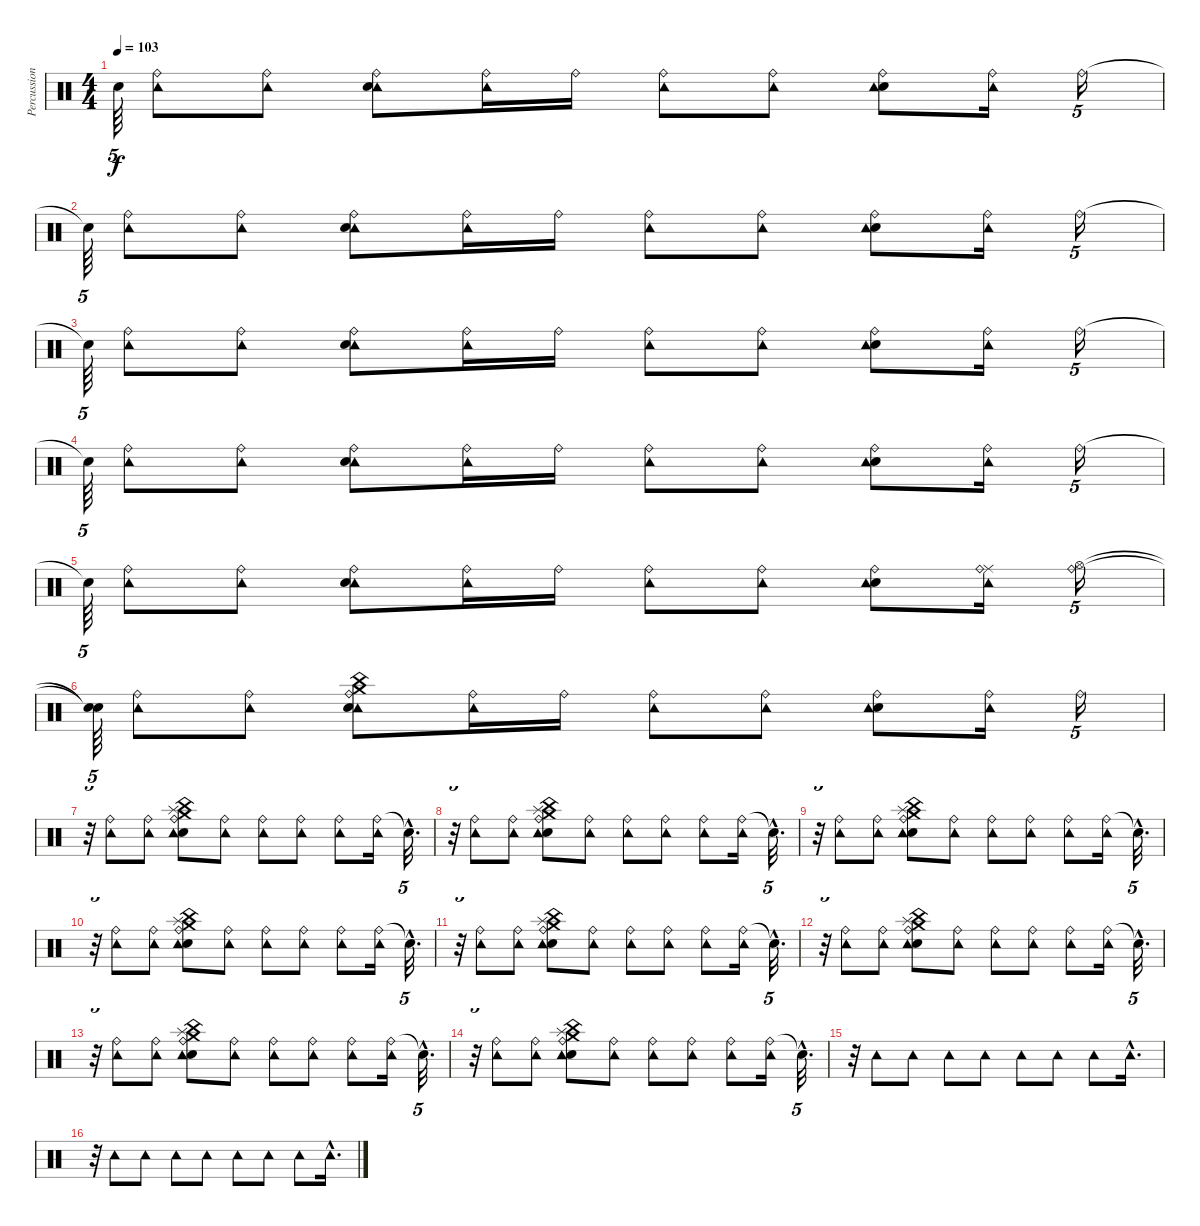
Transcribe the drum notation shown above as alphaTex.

\track ("Percussion" "Percussion") {instrument percussion}
\staff {score}
\articulation defaults
\ts (4 4)
\tempo 103
\clef neutral
\ks c "Snare (hit)"{t}.64{tu (5 4) dy f}
("Ride (bell)" "Tambourine (hit)").8 ("Ride (bell)" "Tambourine (hit)").8 ("Ride (bell)" "Tambourine (hit)" "Snare (hit) 2").8 ("Ride (bell)" "Tambourine (hit)").16 "Ride (bell)".16 ("Ride (bell)" "Tambourine (hit)").8 ("Ride (bell)" "Tambourine (hit)").8 ("Ride (bell)" "Snare (hit) 2" "Tambourine (hit)").8 ("Ride (bell)" "Tambourine (hit)").16 "Ride (bell)".16{tu (5 4)} |
"Snare (hit)"{t}.64{tu (5 4)} ("Ride (bell)" "Tambourine (hit)").8 ("Ride (bell)" "Tambourine (hit)").8 ("Ride (bell)" "Tambourine (hit)" "Snare (hit) 2").8 ("Ride (bell)" "Tambourine (hit)").16 "Ride (bell)".16 ("Ride (bell)" "Tambourine (hit)").8 ("Ride (bell)" "Tambourine (hit)").8 ("Ride (bell)" "Snare (hit) 2" "Tambourine (hit)").8 ("Ride (bell)" "Tambourine (hit)").16 "Ride (bell)".16{tu (5 4)} |
"Snare (hit)"{t}.64{tu (5 4)} ("Ride (bell)" "Tambourine (hit)").8 ("Ride (bell)" "Tambourine (hit)").8 ("Ride (bell)" "Tambourine (hit)" "Snare (hit) 2").8 ("Ride (bell)" "Tambourine (hit)").16 "Ride (bell)".16 ("Ride (bell)" "Tambourine (hit)").8 ("Ride (bell)" "Tambourine (hit)").8 ("Ride (bell)" "Snare (hit) 2" "Tambourine (hit)").8 ("Ride (bell)" "Tambourine (hit)").16 "Ride (bell)".16{tu (5 4)} |
"Snare (hit)"{t}.64{tu (5 4)} ("Ride (bell)" "Tambourine (hit)").8 ("Ride (bell)" "Tambourine (hit)").8 ("Ride (bell)" "Tambourine (hit)" "Snare (hit) 2").8 ("Ride (bell)" "Tambourine (hit)").16 "Ride (bell)".16 ("Ride (bell)" "Tambourine (hit)").8 ("Ride (bell)" "Tambourine (hit)").8 ("Ride (bell)" "Snare (hit) 2" "Tambourine (hit)").8 ("Ride (bell)" "Tambourine (hit)").16 "Ride (bell)".16{tu (5 4)} |
"Snare (hit)"{t}.64{tu (5 4)} ("Ride (bell)" "Tambourine (hit)").8 ("Ride (bell)" "Tambourine (hit)").8 ("Ride (bell)" "Tambourine (hit)" "Snare (hit) 2").8 ("Ride (bell)" "Tambourine (hit)").16 "Ride (bell)".16 ("Ride (bell)" "Tambourine (hit)").8 ("Ride (bell)" "Tambourine (hit)").8 ("Ride (bell)" "Snare (hit) 2" "Tambourine (hit)").8 ("Ride (middle)" "Ride (bell)" "Tambourine (hit)").16 ("Hi-Hat (open)" "Ride (bell)").16{tu (5 4)} |
("Snare (hit)"{t} "Snare (hit)"{t}).64{tu (5 4)} ("Ride (bell)" "Tambourine (hit)").8 ("Ride (bell)" "Tambourine (hit)").8 ("Crash medium (hit)" "China (hit)" "Ride (bell)" "Tambourine (hit)" "Snare (hit) 2").8 ("Ride (bell)" "Tambourine (hit)").16 "Ride (bell)".16 ("Ride (bell)" "Tambourine (hit)").8 ("Ride (bell)" "Tambourine (hit)").8 ("Ride (bell)" "Snare (hit) 2" "Tambourine (hit)").8 ("Ride (bell)" "Tambourine (hit)").16 "Ride (bell)".16{tu (5 4)} |
r.32{tu (5 4)} ("Ride (bell)" "Tambourine (hit)").8 ("Ride (bell)" "Tambourine (hit)").8 ("Splash (hit)" "Crash medium (hit)" "China (hit)" "Electric Snare (hit)" "Ride (bell)" "Tambourine (hit)").8 ("Ride (bell)" "Tambourine (hit)").8 ("Ride (bell)" "Tambourine (hit)").8 ("Ride (bell)" "Tambourine (hit)").8 ("Ride (bell)" "Tambourine (hit)").8 ("Ride (bell)" "Tambourine (hit)").16 "Snare (hit)"{hac t}.32{d tu (5 4)} |
r.32{tu (5 4)} ("Ride (bell)" "Tambourine (hit)").8 ("Ride (bell)" "Tambourine (hit)").8 ("Splash (hit)" "Crash medium (hit)" "China (hit)" "Electric Snare (hit)" "Ride (bell)" "Tambourine (hit)").8 ("Ride (bell)" "Tambourine (hit)").8 ("Ride (bell)" "Tambourine (hit)").8 ("Ride (bell)" "Tambourine (hit)").8 ("Ride (bell)" "Tambourine (hit)").8 ("Ride (bell)" "Tambourine (hit)").16 "Snare (hit)"{hac t}.32{d tu (5 4)} |
r.32{tu (5 4)} ("Ride (bell)" "Tambourine (hit)").8 ("Ride (bell)" "Tambourine (hit)").8 ("Splash (hit)" "Crash medium (hit)" "China (hit)" "Electric Snare (hit)" "Ride (bell)" "Tambourine (hit)").8 ("Ride (bell)" "Tambourine (hit)").8 ("Ride (bell)" "Tambourine (hit)").8 ("Ride (bell)" "Tambourine (hit)").8 ("Ride (bell)" "Tambourine (hit)").8 ("Ride (bell)" "Tambourine (hit)").16 "Snare (hit)"{hac t}.32{d tu (5 4)} |
r.32{tu (5 4)} ("Ride (bell)" "Tambourine (hit)").8 ("Ride (bell)" "Tambourine (hit)").8 ("Splash (hit)" "Crash medium (hit)" "China (hit)" "Electric Snare (hit)" "Ride (bell)" "Tambourine (hit)").8 ("Ride (bell)" "Tambourine (hit)").8 ("Ride (bell)" "Tambourine (hit)").8 ("Ride (bell)" "Tambourine (hit)").8 ("Ride (bell)" "Tambourine (hit)").8 ("Ride (bell)" "Tambourine (hit)").16 "Snare (hit)"{hac t}.32{d tu (5 4)} |
r.32{tu (5 4)} ("Ride (bell)" "Tambourine (hit)").8 ("Ride (bell)" "Tambourine (hit)").8 ("Splash (hit)" "Crash medium (hit)" "China (hit)" "Electric Snare (hit)" "Ride (bell)" "Tambourine (hit)").8 ("Ride (bell)" "Tambourine (hit)").8 ("Ride (bell)" "Tambourine (hit)").8 ("Ride (bell)" "Tambourine (hit)").8 ("Ride (bell)" "Tambourine (hit)").8 ("Ride (bell)" "Tambourine (hit)").16 "Snare (hit)"{hac t}.32{d tu (5 4)} |
r.32{tu (5 4)} ("Ride (bell)" "Tambourine (hit)").8 ("Ride (bell)" "Tambourine (hit)").8 ("Splash (hit)" "Crash medium (hit)" "China (hit)" "Electric Snare (hit)" "Ride (bell)" "Tambourine (hit)").8 ("Ride (bell)" "Tambourine (hit)").8 ("Ride (bell)" "Tambourine (hit)").8 ("Ride (bell)" "Tambourine (hit)").8 ("Ride (bell)" "Tambourine (hit)").8 ("Ride (bell)" "Tambourine (hit)").16 "Snare (hit)"{hac t}.32{d tu (5 4)} |
r.32{tu (5 4)} ("Ride (bell)" "Tambourine (hit)").8 ("Ride (bell)" "Tambourine (hit)").8 ("Splash (hit)" "Crash medium (hit)" "China (hit)" "Electric Snare (hit)" "Ride (bell)" "Tambourine (hit)").8 ("Ride (bell)" "Tambourine (hit)").8 ("Ride (bell)" "Tambourine (hit)").8 ("Ride (bell)" "Tambourine (hit)").8 ("Ride (bell)" "Tambourine (hit)").8 ("Ride (bell)" "Tambourine (hit)").16 "Snare (hit)"{hac t}.32{d tu (5 4)} |
r.32{tu (5 4)} ("Ride (bell)" "Tambourine (hit)").8 ("Ride (bell)" "Tambourine (hit)").8 ("Splash (hit)" "Crash medium (hit)" "China (hit)" "Electric Snare (hit)" "Ride (bell)" "Tambourine (hit)").8 ("Ride (bell)" "Tambourine (hit)").8 ("Ride (bell)" "Tambourine (hit)").8 ("Ride (bell)" "Tambourine (hit)").8 ("Ride (bell)" "Tambourine (hit)").8 ("Ride (bell)" "Tambourine (hit)").16 "Snare (hit)"{hac t}.32{d tu (5 4)} |
r.32 "Tambourine (hit)".8 "Tambourine (hit)".8 "Tambourine (hit)".8 "Tambourine (hit)".8 "Tambourine (hit)".8 "Tambourine (hit)".8 "Tambourine (hit)".8 "Tambourine (hit)"{hac}.16{d} |
r.32 "Tambourine (hit)".8 "Tambourine (hit)".8 "Tambourine (hit)".8 "Tambourine (hit)".8 "Tambourine (hit)".8 "Tambourine (hit)".8 "Tambourine (hit)".8 "Tambourine (hit)"{hac}.16{d}
